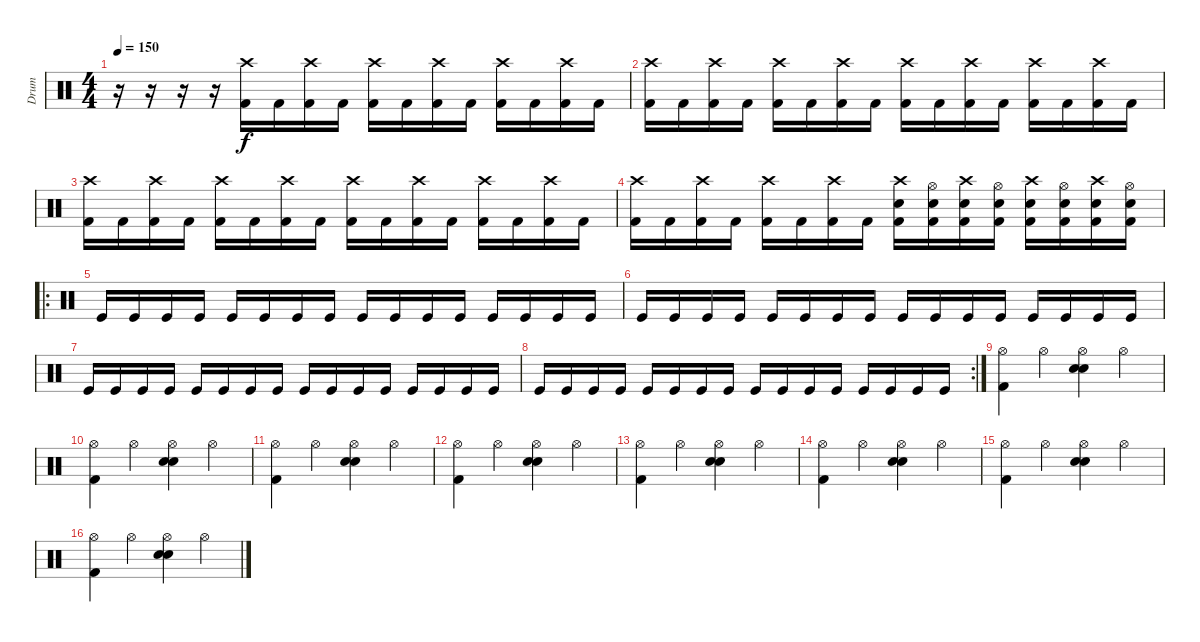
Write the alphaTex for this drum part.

\track ("Drum" "Drum") {instrument percussion}
\staff {score}
\articulation defaults
\ts (4 4)
\tempo 150
\clef neutral
\ks c
r.16{dy f} r.16 r.16 r.16 ("Crash high (hit)" "Kick (hit) 2").16 "Kick (hit) 2".16 ("Crash high (hit)" "Kick (hit) 2").16 "Kick (hit) 2".16 ("Crash high (hit)" "Kick (hit) 2").16 "Kick (hit) 2".16 ("Crash high (hit)" "Kick (hit) 2").16 "Kick (hit) 2".16 ("Crash high (hit)" "Kick (hit) 2").16 "Kick (hit) 2".16 ("Crash high (hit)" "Kick (hit) 2").16 "Kick (hit) 2".16 |
("Crash high (hit)" "Kick (hit) 2").16 "Kick (hit) 2".16 ("Crash high (hit)" "Kick (hit) 2").16 "Kick (hit) 2".16 ("Crash high (hit)" "Kick (hit) 2").16 "Kick (hit) 2".16 ("Crash high (hit)" "Kick (hit) 2").16 "Kick (hit) 2".16 ("Crash high (hit)" "Kick (hit) 2").16 "Kick (hit) 2".16 ("Crash high (hit)" "Kick (hit) 2").16 "Kick (hit) 2".16 ("Crash high (hit)" "Kick (hit) 2").16 "Kick (hit) 2".16 ("Crash high (hit)" "Kick (hit) 2").16 "Kick (hit) 2".16 |
("Crash high (hit)" "Kick (hit) 2").16 "Kick (hit) 2".16 ("Crash high (hit)" "Kick (hit) 2").16 "Kick (hit) 2".16 ("Crash high (hit)" "Kick (hit) 2").16 "Kick (hit) 2".16 ("Crash high (hit)" "Kick (hit) 2").16 "Kick (hit) 2".16 ("Crash high (hit)" "Kick (hit) 2").16 "Kick (hit) 2".16 ("Crash high (hit)" "Kick (hit) 2").16 "Kick (hit) 2".16 ("Crash high (hit)" "Kick (hit) 2").16 "Kick (hit) 2".16 ("Crash high (hit)" "Kick (hit) 2").16 "Kick (hit) 2".16 |
("Crash high (hit)" "Kick (hit) 2").16 "Kick (hit) 2".16 ("Crash high (hit)" "Kick (hit) 2").16 "Kick (hit) 2".16 ("Crash high (hit)" "Kick (hit) 2").16 "Kick (hit) 2".16 ("Crash high (hit)" "Kick (hit) 2").16 "Kick (hit) 2".16 ("Crash high (hit)" "Electric Snare (hit)" "Kick (hit) 2").16 ("Hi-Hat (open)" "Electric Snare (hit)" "Kick (hit) 2").16 ("Crash high (hit)" "Electric Snare (hit)" "Kick (hit) 2").16 ("Hi-Hat (open)" "Electric Snare (hit)" "Kick (hit) 2").16 ("Crash high (hit)" "Electric Snare (hit)" "Kick (hit) 2").16 ("Hi-Hat (open)" "Electric Snare (hit)" "Kick (hit) 2").16 ("Crash high (hit)" "Electric Snare (hit)" "Kick (hit) 2").16 ("Hi-Hat (open)" "Electric Snare (hit)" "Kick (hit) 2").16 |
\ro "Kick (hit)".16 "Kick (hit)".16 "Kick (hit)".16 "Kick (hit)".16 "Kick (hit)".16 "Kick (hit)".16 "Kick (hit)".16 "Kick (hit)".16 "Kick (hit)".16 "Kick (hit)".16 "Kick (hit)".16 "Kick (hit)".16 "Kick (hit)".16 "Kick (hit)".16 "Kick (hit)".16 "Kick (hit)".16
|
"Kick (hit)".16 "Kick (hit)".16 "Kick (hit)".16 "Kick (hit)".16 "Kick (hit)".16 "Kick (hit)".16 "Kick (hit)".16 "Kick (hit)".16 "Kick (hit)".16 "Kick (hit)".16 "Kick (hit)".16 "Kick (hit)".16 "Kick (hit)".16 "Kick (hit)".16 "Kick (hit)".16 "Kick (hit)".16 |
"Kick (hit)".16 "Kick (hit)".16 "Kick (hit)".16 "Kick (hit)".16 "Kick (hit)".16 "Kick (hit)".16 "Kick (hit)".16 "Kick (hit)".16 "Kick (hit)".16 "Kick (hit)".16 "Kick (hit)".16 "Kick (hit)".16 "Kick (hit)".16 "Kick (hit)".16 "Kick (hit)".16 "Kick (hit)".16 |
\rc 2 "Kick (hit)".16 "Kick (hit)".16 "Kick (hit)".16 "Kick (hit)".16 "Kick (hit)".16 "Kick (hit)".16 "Kick (hit)".16 "Kick (hit)".16 "Kick (hit)".16 "Kick (hit)".16 "Kick (hit)".16 "Kick (hit)".16 "Kick (hit)".16 "Kick (hit)".16 "Kick (hit)".16 "Kick (hit)".16
|
("Hi-Hat (open)" "Kick (hit) 2").4 "Hi-Hat (open)".4 ("Electric Snare (hit)" "Hi-Hat (open)" "Electric Snare (hit)").4 "Hi-Hat (open)".4 |
("Hi-Hat (open)" "Kick (hit) 2").4 "Hi-Hat (open)".4 ("Electric Snare (hit)" "Hi-Hat (open)" "Electric Snare (hit)").4 "Hi-Hat (open)".4 |
("Hi-Hat (open)" "Kick (hit) 2").4 "Hi-Hat (open)".4 ("Electric Snare (hit)" "Hi-Hat (open)" "Electric Snare (hit)").4 "Hi-Hat (open)".4 |
("Hi-Hat (open)" "Kick (hit) 2").4 "Hi-Hat (open)".4 ("Electric Snare (hit)" "Hi-Hat (open)" "Electric Snare (hit)").4 "Hi-Hat (open)".4 |
("Hi-Hat (open)" "Kick (hit) 2").4 "Hi-Hat (open)".4 ("Electric Snare (hit)" "Hi-Hat (open)" "Electric Snare (hit)").4 "Hi-Hat (open)".4 |
("Hi-Hat (open)" "Kick (hit) 2").4 "Hi-Hat (open)".4 ("Electric Snare (hit)" "Hi-Hat (open)" "Electric Snare (hit)").4 "Hi-Hat (open)".4 |
("Hi-Hat (open)" "Kick (hit) 2").4 "Hi-Hat (open)".4 ("Electric Snare (hit)" "Hi-Hat (open)" "Electric Snare (hit)").4 "Hi-Hat (open)".4 |
("Hi-Hat (open)" "Kick (hit) 2").4 "Hi-Hat (open)".4 ("Electric Snare (hit)" "Hi-Hat (open)" "Electric Snare (hit)").4 "Hi-Hat (open)".4
